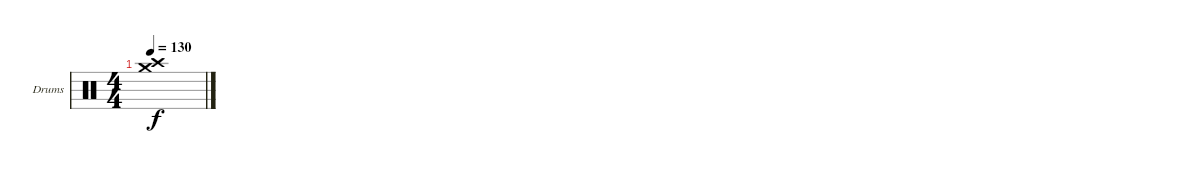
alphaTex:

\defaultSystemsLayout 4
\bracketExtendMode groupsimilarinstruments
\firstSystemTrackNameOrientation horizontal
\otherSystemsTrackNameOrientation horizontal
\track ("Drumkit" "Drums") {instrument percussion}
\staff {score}
\articulation defaults
\ts (4 4)
\tempo 130
\clef neutral
\ks c
("Crash high (hit)" "Crash medium (hit)").1{dy f}
